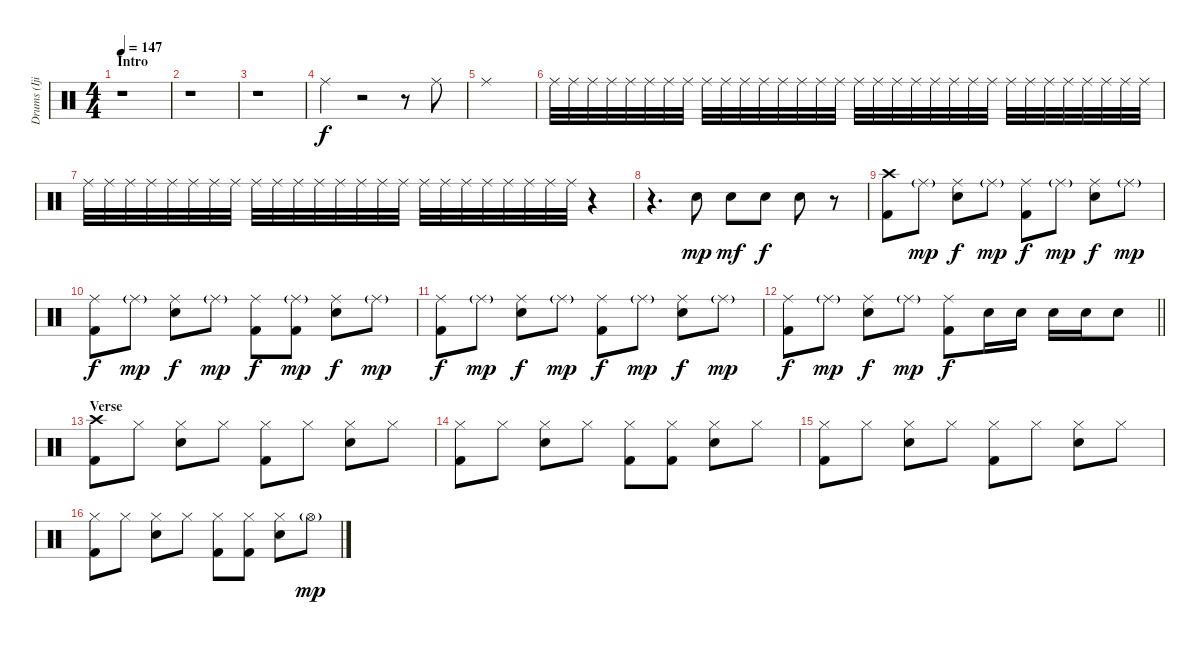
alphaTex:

\track ("Drums (Ijichi)" "Drums (Iji") {instrument percussion}
\staff {score}
\articulation defaults
\ts (4 4)
\section ("" "Intro")
\tempo 147
\clef neutral
\ks c
r.1{dy f} |
r.1 |
r.1 |
"Ride (middle)".4 r.2 r.8 "Ride (middle)".8 |
"Ride (middle)".1{volume 0} |
"Ride (middle)".32{volume 13} "Ride (middle)".32 "Ride (middle)".32 "Ride (middle)".32 "Ride (middle)".32 "Ride (middle)".32 "Ride (middle)".32 "Ride (middle)".32 "Ride (middle)".32 "Ride (middle)".32 "Ride (middle)".32 "Ride (middle)".32 "Ride (middle)".32 "Ride (middle)".32 "Ride (middle)".32 "Ride (middle)".32 "Ride (middle)".32 "Ride (middle)".32 "Ride (middle)".32 "Ride (middle)".32 "Ride (middle)".32 "Ride (middle)".32 "Ride (middle)".32 "Ride (middle)".32 "Ride (middle)".32 "Ride (middle)".32 "Ride (middle)".32 "Ride (middle)".32 "Ride (middle)".32 "Ride (middle)".32 "Ride (middle)".32 "Ride (middle)".32 |
"Ride (middle)".32 "Ride (middle)".32 "Ride (middle)".32 "Ride (middle)".32 "Ride (middle)".32 "Ride (middle)".32 "Ride (middle)".32 "Ride (middle)".32 "Ride (middle)".32 "Ride (middle)".32 "Ride (middle)".32 "Ride (middle)".32 "Ride (middle)".32 "Ride (middle)".32 "Ride (middle)".32 "Ride (middle)".32 "Ride (middle)".32 "Ride (middle)".32 "Ride (middle)".32 "Ride (middle)".32 "Ride (middle)".32 "Ride (middle)".32 "Ride (middle)".32 "Ride (middle)".32 r.4 |
r.4{d} "Snare (hit) 2".8{dy mp} "Snare (hit) 2".8{dy mf} "Snare (hit) 2".8{dy f} "Snare (hit) 2".8 r.8 |
("Crash high (hit)" "Kick (hit) 2").8 "Ride (middle)"{g}.8{dy mp} ("Ride (middle)" "Snare (hit) 2").8{dy f} "Ride (middle)"{g}.8{dy mp} ("Ride (middle)" "Kick (hit) 2").8{dy f} "Ride (middle)"{g}.8{dy mp} ("Ride (middle)" "Snare (hit) 2").8{dy f} "Ride (middle)"{g}.8{dy mp} |
("Ride (middle)" "Kick (hit) 2").8{dy f} "Ride (middle)"{g}.8{dy mp} ("Ride (middle)" "Snare (hit) 2").8{dy f} "Ride (middle)"{g}.8{dy mp} ("Ride (middle)" "Kick (hit) 2").8{dy f} ("Ride (middle)"{g} "Kick (hit) 2").8{dy mp} ("Ride (middle)" "Snare (hit) 2").8{dy f} "Ride (middle)"{g}.8{dy mp} |
("Ride (middle)" "Kick (hit) 2").8{dy f} "Ride (middle)"{g}.8{dy mp} ("Ride (middle)" "Snare (hit) 2").8{dy f} "Ride (middle)"{g}.8{dy mp} ("Ride (middle)" "Kick (hit) 2").8{dy f} "Ride (middle)"{g}.8{dy mp} ("Ride (middle)" "Snare (hit) 2").8{dy f} "Ride (middle)"{g}.8{dy mp} |
\barLineRight lightlight
("Ride (middle)" "Kick (hit) 2").8{dy f} "Ride (middle)"{g}.8{dy mp} ("Ride (middle)" "Snare (hit) 2").8{dy f} "Ride (middle)"{g}.8{dy mp} ("Ride (middle)" "Kick (hit) 2").8{dy f} "Snare (hit) 2".16 "Snare (hit) 2".16 "Snare (hit) 2".16 "Snare (hit) 2".16 "Snare (hit) 2".8 |
\section ("" "Verse")
("Crash high (hit)" "Kick (hit) 2").8 "Hi-Hat (closed)".8 ("Hi-Hat (closed)" "Snare (hit) 2").8 "Hi-Hat (closed)".8 ("Hi-Hat (closed)" "Kick (hit) 2").8 "Hi-Hat (closed)".8 ("Hi-Hat (closed)" "Snare (hit) 2").8 "Hi-Hat (closed)".8 |
("Hi-Hat (closed)" "Kick (hit) 2").8 "Hi-Hat (closed)".8 ("Hi-Hat (closed)" "Snare (hit) 2").8 "Hi-Hat (closed)".8 ("Hi-Hat (closed)" "Kick (hit) 2").8 ("Hi-Hat (closed)" "Kick (hit) 2").8 ("Hi-Hat (closed)" "Snare (hit) 2").8 "Hi-Hat (closed)".8 |
("Hi-Hat (closed)" "Kick (hit) 2").8 "Hi-Hat (closed)".8 ("Hi-Hat (closed)" "Snare (hit) 2").8 "Hi-Hat (closed)".8 ("Hi-Hat (closed)" "Kick (hit) 2").8 "Hi-Hat (closed)".8 ("Hi-Hat (closed)" "Snare (hit) 2").8 "Hi-Hat (closed)".8 |
("Hi-Hat (closed)" "Kick (hit) 2").8 "Hi-Hat (closed)".8 ("Hi-Hat (closed)" "Snare (hit) 2").8 "Hi-Hat (closed)".8 ("Hi-Hat (closed)" "Kick (hit) 2").8 ("Hi-Hat (closed)" "Kick (hit) 2").8 ("Hi-Hat (closed)" "Snare (hit) 2").8 "Hi-Hat (open)"{g}.8{dy mp}
